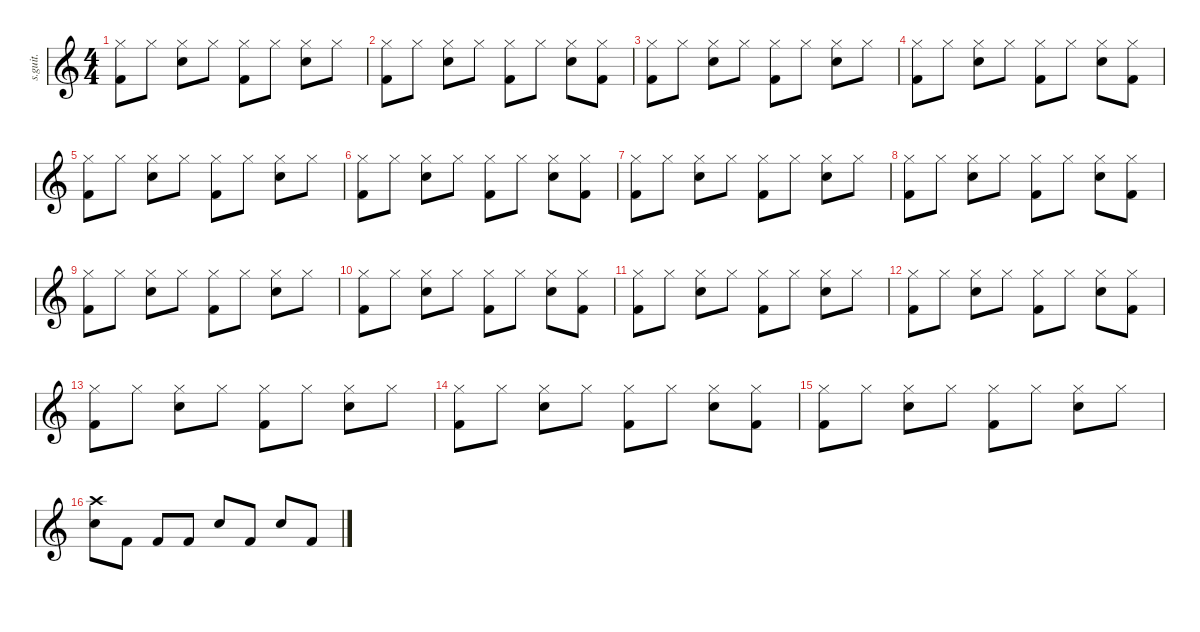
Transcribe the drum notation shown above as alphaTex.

\defaultSystemsLayout 4
\hideDynamics
\bracketExtendMode nobrackets
\track ("Drumkit" "s.guit.") {instrument percussion}
\staff {score}
\articulation defaults
\ts (4 4)
\tempo (130 hide)
\clef g2
\ks c
("Hi-Hat (closed)" "Kick (hit) 2").8{lyrics (0 "") lyrics (1 "") lyrics (2 "") lyrics (3 "") lyrics (4 "") dy pp} "Hi-Hat (closed)".8{lyrics (0 "") lyrics (1 "") lyrics (2 "") lyrics (3 "") lyrics (4 "")} ("Hi-Hat (closed)" "Snare (hit) 2").8{lyrics (0 "") lyrics (1 "") lyrics (2 "") lyrics (3 "") lyrics (4 "")} "Hi-Hat (closed)".8{lyrics (0 "") lyrics (1 "") lyrics (2 "") lyrics (3 "") lyrics (4 "")} ("Hi-Hat (closed)" "Kick (hit) 2").8{lyrics (0 "") lyrics (1 "") lyrics (2 "") lyrics (3 "") lyrics (4 "")} "Hi-Hat (closed)".8{lyrics (0 "") lyrics (1 "") lyrics (2 "") lyrics (3 "") lyrics (4 "") dy p} ("Hi-Hat (closed)" "Snare (hit) 2").8{lyrics (0 "") lyrics (1 "") lyrics (2 "") lyrics (3 "") lyrics (4 "")} "Hi-Hat (closed)".8{lyrics (0 "") lyrics (1 "") lyrics (2 "") lyrics (3 "") lyrics (4 "")} |
("Hi-Hat (closed)" "Kick (hit) 2").8{lyrics (0 "") lyrics (1 "") lyrics (2 "") lyrics (3 "") lyrics (4 "")} "Hi-Hat (closed)".8{lyrics (0 "") lyrics (1 "") lyrics (2 "") lyrics (3 "") lyrics (4 "")} ("Hi-Hat (closed)" "Snare (hit) 2").8{lyrics (0 "") lyrics (1 "") lyrics (2 "") lyrics (3 "") lyrics (4 "")} "Hi-Hat (closed)".8{lyrics (0 "") lyrics (1 "") lyrics (2 "") lyrics (3 "") lyrics (4 "")} ("Hi-Hat (closed)" "Kick (hit) 2").8{lyrics (0 "") lyrics (1 "") lyrics (2 "") lyrics (3 "") lyrics (4 "")} "Hi-Hat (closed)".8{lyrics (0 "") lyrics (1 "") lyrics (2 "") lyrics (3 "") lyrics (4 "") dy mp} ("Hi-Hat (closed)" "Snare (hit) 2").8{lyrics (0 "") lyrics (1 "") lyrics (2 "") lyrics (3 "") lyrics (4 "")} ("Hi-Hat (closed)" "Kick (hit) 2").8{lyrics (0 "") lyrics (1 "") lyrics (2 "") lyrics (3 "") lyrics (4 "")} |
("Hi-Hat (closed)" "Kick (hit) 2").8{lyrics (0 "") lyrics (1 "") lyrics (2 "") lyrics (3 "") lyrics (4 "")} "Hi-Hat (closed)".8{lyrics (0 "") lyrics (1 "") lyrics (2 "") lyrics (3 "") lyrics (4 "")} ("Hi-Hat (closed)" "Snare (hit) 2").8{lyrics (0 "") lyrics (1 "") lyrics (2 "") lyrics (3 "") lyrics (4 "")} "Hi-Hat (closed)".8{lyrics (0 "") lyrics (1 "") lyrics (2 "") lyrics (3 "") lyrics (4 "")} ("Hi-Hat (closed)" "Kick (hit) 2").8{lyrics (0 "") lyrics (1 "") lyrics (2 "") lyrics (3 "") lyrics (4 "")} "Hi-Hat (closed)".8{lyrics (0 "") lyrics (1 "") lyrics (2 "") lyrics (3 "") lyrics (4 "") dy mf} ("Hi-Hat (closed)" "Snare (hit) 2").8{lyrics (0 "") lyrics (1 "") lyrics (2 "") lyrics (3 "") lyrics (4 "")} "Hi-Hat (closed)".8{lyrics (0 "") lyrics (1 "") lyrics (2 "") lyrics (3 "") lyrics (4 "")} |
("Hi-Hat (closed)" "Kick (hit) 2").8{lyrics (0 "") lyrics (1 "") lyrics (2 "") lyrics (3 "") lyrics (4 "")} "Hi-Hat (closed)".8{lyrics (0 "") lyrics (1 "") lyrics (2 "") lyrics (3 "") lyrics (4 "")} ("Hi-Hat (closed)" "Snare (hit) 2").8{lyrics (0 "") lyrics (1 "") lyrics (2 "") lyrics (3 "") lyrics (4 "")} "Hi-Hat (closed)".8{lyrics (0 "") lyrics (1 "") lyrics (2 "") lyrics (3 "") lyrics (4 "")} ("Hi-Hat (closed)" "Kick (hit) 2").8{lyrics (0 "") lyrics (1 "") lyrics (2 "") lyrics (3 "") lyrics (4 "")} "Hi-Hat (closed)".8{lyrics (0 "") lyrics (1 "") lyrics (2 "") lyrics (3 "") lyrics (4 "") dy f} ("Hi-Hat (closed)" "Snare (hit) 2").8{lyrics (0 "") lyrics (1 "") lyrics (2 "") lyrics (3 "") lyrics (4 "")} ("Hi-Hat (closed)" "Kick (hit) 2").8{lyrics (0 "") lyrics (1 "") lyrics (2 "") lyrics (3 "") lyrics (4 "")} |
("Hi-Hat (closed)" "Kick (hit) 2").8{lyrics (0 "") lyrics (1 "") lyrics (2 "") lyrics (3 "") lyrics (4 "")} "Hi-Hat (closed)".8{lyrics (0 "") lyrics (1 "") lyrics (2 "") lyrics (3 "") lyrics (4 "")} ("Hi-Hat (closed)" "Snare (hit) 2").8{lyrics (0 "") lyrics (1 "") lyrics (2 "") lyrics (3 "") lyrics (4 "")} "Hi-Hat (closed)".8{lyrics (0 "") lyrics (1 "") lyrics (2 "") lyrics (3 "") lyrics (4 "")} ("Hi-Hat (closed)" "Kick (hit) 2").8{lyrics (0 "") lyrics (1 "") lyrics (2 "") lyrics (3 "") lyrics (4 "")} "Hi-Hat (closed)".8{lyrics (0 "") lyrics (1 "") lyrics (2 "") lyrics (3 "") lyrics (4 "")} ("Hi-Hat (closed)" "Snare (hit) 2").8{lyrics (0 "") lyrics (1 "") lyrics (2 "") lyrics (3 "") lyrics (4 "")} "Hi-Hat (closed)".8{lyrics (0 "") lyrics (1 "") lyrics (2 "") lyrics (3 "") lyrics (4 "")} |
("Hi-Hat (closed)" "Kick (hit) 2").8{lyrics (0 "") lyrics (1 "") lyrics (2 "") lyrics (3 "") lyrics (4 "")} "Hi-Hat (closed)".8{lyrics (0 "") lyrics (1 "") lyrics (2 "") lyrics (3 "") lyrics (4 "")} ("Hi-Hat (closed)" "Snare (hit) 2").8{lyrics (0 "") lyrics (1 "") lyrics (2 "") lyrics (3 "") lyrics (4 "")} "Hi-Hat (closed)".8{lyrics (0 "") lyrics (1 "") lyrics (2 "") lyrics (3 "") lyrics (4 "")} ("Hi-Hat (closed)" "Kick (hit) 2").8{lyrics (0 "") lyrics (1 "") lyrics (2 "") lyrics (3 "") lyrics (4 "")} "Hi-Hat (closed)".8{lyrics (0 "") lyrics (1 "") lyrics (2 "") lyrics (3 "") lyrics (4 "")} ("Hi-Hat (closed)" "Snare (hit) 2").8{lyrics (0 "") lyrics (1 "") lyrics (2 "") lyrics (3 "") lyrics (4 "")} ("Hi-Hat (closed)" "Kick (hit) 2").8{lyrics (0 "") lyrics (1 "") lyrics (2 "") lyrics (3 "") lyrics (4 "")} |
("Hi-Hat (closed)" "Kick (hit) 2").8{lyrics (0 "") lyrics (1 "") lyrics (2 "") lyrics (3 "") lyrics (4 "")} "Hi-Hat (closed)".8{lyrics (0 "") lyrics (1 "") lyrics (2 "") lyrics (3 "") lyrics (4 "")} ("Hi-Hat (closed)" "Snare (hit) 2").8{lyrics (0 "") lyrics (1 "") lyrics (2 "") lyrics (3 "") lyrics (4 "")} "Hi-Hat (closed)".8{lyrics (0 "") lyrics (1 "") lyrics (2 "") lyrics (3 "") lyrics (4 "")} ("Hi-Hat (closed)" "Kick (hit) 2").8{lyrics (0 "") lyrics (1 "") lyrics (2 "") lyrics (3 "") lyrics (4 "")} "Hi-Hat (closed)".8{lyrics (0 "") lyrics (1 "") lyrics (2 "") lyrics (3 "") lyrics (4 "")} ("Hi-Hat (closed)" "Snare (hit) 2").8{lyrics (0 "") lyrics (1 "") lyrics (2 "") lyrics (3 "") lyrics (4 "")} "Hi-Hat (closed)".8{lyrics (0 "") lyrics (1 "") lyrics (2 "") lyrics (3 "") lyrics (4 "")} |
("Hi-Hat (closed)" "Kick (hit) 2").8{lyrics (0 "") lyrics (1 "") lyrics (2 "") lyrics (3 "") lyrics (4 "")} "Hi-Hat (closed)".8{lyrics (0 "") lyrics (1 "") lyrics (2 "") lyrics (3 "") lyrics (4 "")} ("Hi-Hat (closed)" "Snare (hit) 2").8{lyrics (0 "") lyrics (1 "") lyrics (2 "") lyrics (3 "") lyrics (4 "")} "Hi-Hat (closed)".8{lyrics (0 "") lyrics (1 "") lyrics (2 "") lyrics (3 "") lyrics (4 "")} ("Hi-Hat (closed)" "Kick (hit) 2").8{lyrics (0 "") lyrics (1 "") lyrics (2 "") lyrics (3 "") lyrics (4 "")} "Hi-Hat (closed)".8{lyrics (0 "") lyrics (1 "") lyrics (2 "") lyrics (3 "") lyrics (4 "")} ("Hi-Hat (closed)" "Snare (hit) 2").8{lyrics (0 "") lyrics (1 "") lyrics (2 "") lyrics (3 "") lyrics (4 "")} ("Hi-Hat (closed)" "Kick (hit) 2").8{lyrics (0 "") lyrics (1 "") lyrics (2 "") lyrics (3 "") lyrics (4 "")} |
("Hi-Hat (closed)" "Kick (hit) 2").8{lyrics (0 "") lyrics (1 "") lyrics (2 "") lyrics (3 "") lyrics (4 "")} "Hi-Hat (closed)".8{lyrics (0 "") lyrics (1 "") lyrics (2 "") lyrics (3 "") lyrics (4 "")} ("Hi-Hat (closed)" "Snare (hit) 2").8{lyrics (0 "") lyrics (1 "") lyrics (2 "") lyrics (3 "") lyrics (4 "")} "Hi-Hat (closed)".8{lyrics (0 "") lyrics (1 "") lyrics (2 "") lyrics (3 "") lyrics (4 "")} ("Hi-Hat (closed)" "Kick (hit) 2").8{lyrics (0 "") lyrics (1 "") lyrics (2 "") lyrics (3 "") lyrics (4 "")} "Hi-Hat (closed)".8{lyrics (0 "") lyrics (1 "") lyrics (2 "") lyrics (3 "") lyrics (4 "")} ("Hi-Hat (closed)" "Snare (hit) 2").8{lyrics (0 "") lyrics (1 "") lyrics (2 "") lyrics (3 "") lyrics (4 "")} "Hi-Hat (closed)".8{lyrics (0 "") lyrics (1 "") lyrics (2 "") lyrics (3 "") lyrics (4 "")} |
("Hi-Hat (closed)" "Kick (hit) 2").8{lyrics (0 "") lyrics (1 "") lyrics (2 "") lyrics (3 "") lyrics (4 "")} "Hi-Hat (closed)".8{lyrics (0 "") lyrics (1 "") lyrics (2 "") lyrics (3 "") lyrics (4 "")} ("Hi-Hat (closed)" "Snare (hit) 2").8{lyrics (0 "") lyrics (1 "") lyrics (2 "") lyrics (3 "") lyrics (4 "")} "Hi-Hat (closed)".8{lyrics (0 "") lyrics (1 "") lyrics (2 "") lyrics (3 "") lyrics (4 "")} ("Hi-Hat (closed)" "Kick (hit) 2").8{lyrics (0 "") lyrics (1 "") lyrics (2 "") lyrics (3 "") lyrics (4 "")} "Hi-Hat (closed)".8{lyrics (0 "") lyrics (1 "") lyrics (2 "") lyrics (3 "") lyrics (4 "")} ("Hi-Hat (closed)" "Snare (hit) 2").8{lyrics (0 "") lyrics (1 "") lyrics (2 "") lyrics (3 "") lyrics (4 "")} ("Hi-Hat (closed)" "Kick (hit) 2").8{lyrics (0 "") lyrics (1 "") lyrics (2 "") lyrics (3 "") lyrics (4 "")} |
("Hi-Hat (closed)" "Kick (hit) 2").8{lyrics (0 "") lyrics (1 "") lyrics (2 "") lyrics (3 "") lyrics (4 "")} "Hi-Hat (closed)".8{lyrics (0 "") lyrics (1 "") lyrics (2 "") lyrics (3 "") lyrics (4 "")} ("Hi-Hat (closed)" "Snare (hit) 2").8{lyrics (0 "") lyrics (1 "") lyrics (2 "") lyrics (3 "") lyrics (4 "")} "Hi-Hat (closed)".8{lyrics (0 "") lyrics (1 "") lyrics (2 "") lyrics (3 "") lyrics (4 "")} ("Hi-Hat (closed)" "Kick (hit) 2").8{lyrics (0 "") lyrics (1 "") lyrics (2 "") lyrics (3 "") lyrics (4 "")} "Hi-Hat (closed)".8{lyrics (0 "") lyrics (1 "") lyrics (2 "") lyrics (3 "") lyrics (4 "")} ("Hi-Hat (closed)" "Snare (hit) 2").8{lyrics (0 "") lyrics (1 "") lyrics (2 "") lyrics (3 "") lyrics (4 "")} "Hi-Hat (closed)".8{lyrics (0 "") lyrics (1 "") lyrics (2 "") lyrics (3 "") lyrics (4 "")} |
("Hi-Hat (closed)" "Kick (hit) 2").8{lyrics (0 "") lyrics (1 "") lyrics (2 "") lyrics (3 "") lyrics (4 "")} "Hi-Hat (closed)".8{lyrics (0 "") lyrics (1 "") lyrics (2 "") lyrics (3 "") lyrics (4 "")} ("Hi-Hat (closed)" "Snare (hit) 2").8{lyrics (0 "") lyrics (1 "") lyrics (2 "") lyrics (3 "") lyrics (4 "")} "Hi-Hat (closed)".8{lyrics (0 "") lyrics (1 "") lyrics (2 "") lyrics (3 "") lyrics (4 "")} ("Hi-Hat (closed)" "Kick (hit) 2").8{lyrics (0 "") lyrics (1 "") lyrics (2 "") lyrics (3 "") lyrics (4 "")} "Hi-Hat (closed)".8{lyrics (0 "") lyrics (1 "") lyrics (2 "") lyrics (3 "") lyrics (4 "")} ("Hi-Hat (closed)" "Snare (hit) 2").8{lyrics (0 "") lyrics (1 "") lyrics (2 "") lyrics (3 "") lyrics (4 "")} ("Hi-Hat (closed)" "Kick (hit) 2").8{lyrics (0 "") lyrics (1 "") lyrics (2 "") lyrics (3 "") lyrics (4 "")} |
("Hi-Hat (closed)" "Kick (hit) 2").8{lyrics (0 "") lyrics (1 "") lyrics (2 "") lyrics (3 "") lyrics (4 "")} "Hi-Hat (closed)".8{lyrics (0 "") lyrics (1 "") lyrics (2 "") lyrics (3 "") lyrics (4 "")} ("Hi-Hat (closed)" "Snare (hit) 2").8{lyrics (0 "") lyrics (1 "") lyrics (2 "") lyrics (3 "") lyrics (4 "")} "Hi-Hat (closed)".8{lyrics (0 "") lyrics (1 "") lyrics (2 "") lyrics (3 "") lyrics (4 "")} ("Hi-Hat (closed)" "Kick (hit) 2").8{lyrics (0 "") lyrics (1 "") lyrics (2 "") lyrics (3 "") lyrics (4 "")} "Hi-Hat (closed)".8{lyrics (0 "") lyrics (1 "") lyrics (2 "") lyrics (3 "") lyrics (4 "")} ("Hi-Hat (closed)" "Snare (hit) 2").8{lyrics (0 "") lyrics (1 "") lyrics (2 "") lyrics (3 "") lyrics (4 "")} "Hi-Hat (closed)".8{lyrics (0 "") lyrics (1 "") lyrics (2 "") lyrics (3 "") lyrics (4 "")} |
("Hi-Hat (closed)" "Kick (hit) 2").8{lyrics (0 "") lyrics (1 "") lyrics (2 "") lyrics (3 "") lyrics (4 "")} "Hi-Hat (closed)".8{lyrics (0 "") lyrics (1 "") lyrics (2 "") lyrics (3 "") lyrics (4 "")} ("Hi-Hat (closed)" "Snare (hit) 2").8{lyrics (0 "") lyrics (1 "") lyrics (2 "") lyrics (3 "") lyrics (4 "")} "Hi-Hat (closed)".8{lyrics (0 "") lyrics (1 "") lyrics (2 "") lyrics (3 "") lyrics (4 "")} ("Hi-Hat (closed)" "Kick (hit) 2").8{lyrics (0 "") lyrics (1 "") lyrics (2 "") lyrics (3 "") lyrics (4 "")} "Hi-Hat (closed)".8{lyrics (0 "") lyrics (1 "") lyrics (2 "") lyrics (3 "") lyrics (4 "")} ("Hi-Hat (closed)" "Snare (hit) 2").8{lyrics (0 "") lyrics (1 "") lyrics (2 "") lyrics (3 "") lyrics (4 "")} ("Hi-Hat (closed)" "Kick (hit) 2").8{lyrics (0 "") lyrics (1 "") lyrics (2 "") lyrics (3 "") lyrics (4 "")} |
("Hi-Hat (closed)" "Kick (hit) 2").8{lyrics (0 "") lyrics (1 "") lyrics (2 "") lyrics (3 "") lyrics (4 "")} "Hi-Hat (closed)".8{lyrics (0 "") lyrics (1 "") lyrics (2 "") lyrics (3 "") lyrics (4 "")} ("Hi-Hat (closed)" "Snare (hit) 2").8{lyrics (0 "") lyrics (1 "") lyrics (2 "") lyrics (3 "") lyrics (4 "")} "Hi-Hat (closed)".8{lyrics (0 "") lyrics (1 "") lyrics (2 "") lyrics (3 "") lyrics (4 "")} ("Hi-Hat (closed)" "Kick (hit) 2").8{lyrics (0 "") lyrics (1 "") lyrics (2 "") lyrics (3 "") lyrics (4 "")} "Hi-Hat (closed)".8{lyrics (0 "") lyrics (1 "") lyrics (2 "") lyrics (3 "") lyrics (4 "")} ("Hi-Hat (closed)" "Snare (hit) 2").8{lyrics (0 "") lyrics (1 "") lyrics (2 "") lyrics (3 "") lyrics (4 "")} "Hi-Hat (closed)".8{lyrics (0 "") lyrics (1 "") lyrics (2 "") lyrics (3 "") lyrics (4 "")} |
("Crash high (hit)" "Snare (hit) 2").8{lyrics (0 "") lyrics (1 "") lyrics (2 "") lyrics (3 "") lyrics (4 "")} "Kick (hit) 2".8{lyrics (0 "") lyrics (1 "") lyrics (2 "") lyrics (3 "") lyrics (4 "")} "Kick (hit) 2".8{lyrics (0 "") lyrics (1 "") lyrics (2 "") lyrics (3 "") lyrics (4 "")} "Kick (hit) 2".8{lyrics (0 "") lyrics (1 "") lyrics (2 "") lyrics (3 "") lyrics (4 "")} "Snare (hit) 2".8{lyrics (0 "") lyrics (1 "") lyrics (2 "") lyrics (3 "") lyrics (4 "")} "Kick (hit) 2".8{lyrics (0 "") lyrics (1 "") lyrics (2 "") lyrics (3 "") lyrics (4 "")} "Snare (hit) 2".8{lyrics (0 "") lyrics (1 "") lyrics (2 "") lyrics (3 "") lyrics (4 "")} "Kick (hit) 2".8{lyrics (0 "") lyrics (1 "") lyrics (2 "") lyrics (3 "") lyrics (4 "")}
